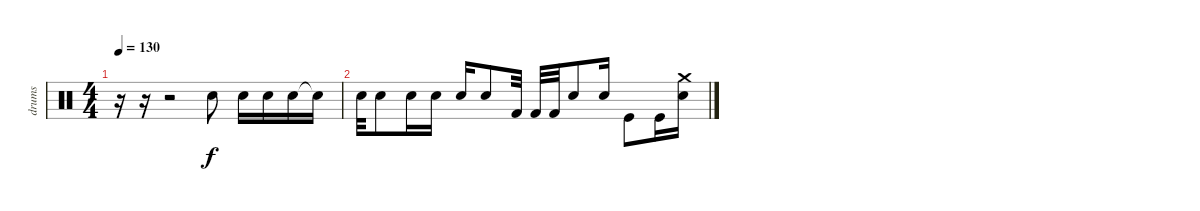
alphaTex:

\track ("drums" "drums") {instrument percussion}
\staff {score}
\articulation defaults
\ts (4 4)
\tempo 130
\clef neutral
\ks c
r.16{dy f} r.16 r.2 "Snare (hit) 2".8 "Snare (hit) 2".16 "Snare (hit) 2".16 "Snare (hit) 2".16 "Snare (hit)"{t}.16 |
"Snare (hit) 2".32 "Snare (hit) 2".8 "Electric Snare (hit)".16 "Electric Snare (hit)".16 "Electric Snare (hit)".16 "Electric Snare (hit)".8 "Kick (hit) 2".32 "Kick (hit) 2".32 "Kick (hit) 2".32 "Snare (hit) 2".8 "Snare (hit) 2".16 "Kick (hit)".8 "Kick (hit)".16 ("Crash medium (hit)" "Snare (hit) 2").16
